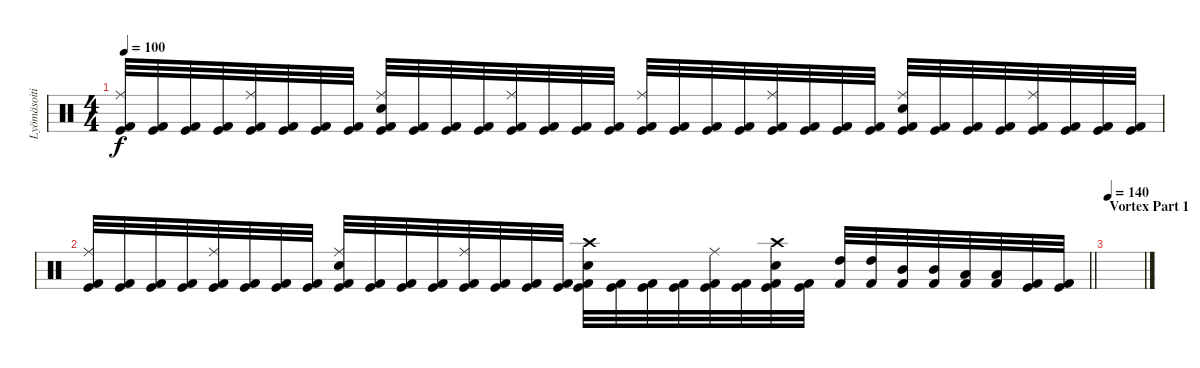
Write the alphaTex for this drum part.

\track ("Lyömäsoitin" "Lyömäsoiti") {instrument percussion}
\staff {score}
\articulation defaults
\ts (4 4)
\tempo 100
\clef neutral
\ks c
("Kick (hit) 2" "Ride (middle)" "Kick (hit)").32{dy f} ("Kick (hit) 2" "Kick (hit)").32 ("Kick (hit) 2" "Kick (hit)").32 ("Kick (hit) 2" "Kick (hit)").32 ("Kick (hit) 2" "Ride (middle)" "Kick (hit)").32 ("Kick (hit) 2" "Kick (hit)").32 ("Kick (hit) 2" "Kick (hit)").32 ("Kick (hit) 2" "Kick (hit)").32 ("Kick (hit) 2" "Ride (middle)" "Electric Snare (hit)" "Kick (hit)").32 ("Kick (hit) 2" "Kick (hit)").32 ("Kick (hit) 2" "Kick (hit)").32 ("Kick (hit) 2" "Kick (hit)").32 ("Kick (hit) 2" "Ride (middle)" "Kick (hit)").32 ("Kick (hit) 2" "Kick (hit)").32 ("Kick (hit) 2" "Kick (hit)").32 ("Kick (hit) 2" "Kick (hit)").32 ("Kick (hit) 2" "Ride (middle)" "Kick (hit)").32 ("Kick (hit) 2" "Kick (hit)").32 ("Kick (hit) 2" "Kick (hit)").32 ("Kick (hit) 2" "Kick (hit)").32 ("Kick (hit) 2" "Ride (middle)" "Kick (hit)").32 ("Kick (hit) 2" "Kick (hit)").32 ("Kick (hit) 2" "Kick (hit)").32 ("Kick (hit) 2" "Kick (hit)").32 ("Kick (hit) 2" "Ride (middle)" "Electric Snare (hit)" "Kick (hit)").32 ("Kick (hit) 2" "Kick (hit)").32 ("Kick (hit) 2" "Kick (hit)").32 ("Kick (hit) 2" "Kick (hit)").32 ("Kick (hit) 2" "Ride (middle)" "Kick (hit)").32 ("Kick (hit) 2" "Kick (hit)").32 ("Kick (hit) 2" "Kick (hit)").32 ("Kick (hit) 2" "Kick (hit)").32 |
\barLineRight lightlight
("Kick (hit) 2" "Ride (middle)" "Kick (hit)").32 ("Kick (hit) 2" "Kick (hit)").32 ("Kick (hit) 2" "Kick (hit)").32 ("Kick (hit) 2" "Kick (hit)").32 ("Kick (hit) 2" "Ride (middle)" "Kick (hit)").32 ("Kick (hit) 2" "Kick (hit)").32 ("Kick (hit) 2" "Kick (hit)").32 ("Kick (hit) 2" "Kick (hit)").32 ("Kick (hit) 2" "Ride (middle)" "Electric Snare (hit)" "Kick (hit)").32 ("Kick (hit) 2" "Kick (hit)").32 ("Kick (hit) 2" "Kick (hit)").32 ("Kick (hit) 2" "Kick (hit)").32 ("Kick (hit) 2" "Ride (middle)" "Kick (hit)").32 ("Kick (hit) 2" "Kick (hit)").32 ("Kick (hit) 2" "Kick (hit)").32 ("Kick (hit) 2" "Kick (hit)").32 ("Kick (hit) 2" "Crash high (hit)" "Electric Snare (hit)" "Kick (hit)").32 ("Kick (hit) 2" "Kick (hit)").32 ("Kick (hit) 2" "Kick (hit)").32 ("Kick (hit) 2" "Kick (hit)").32 ("Kick (hit) 2" "Ride (middle)" "Kick (hit)").32 ("Kick (hit) 2" "Kick (hit)").32 ("Kick (hit) 2" "Crash high (hit)" "Electric Snare (hit)" "Kick (hit)").32 ("Kick (hit) 2" "Kick (hit)").32 ("Kick (hit) 2" "High Tom (hit)").32 ("Kick (hit) 2" "High Tom (hit)").32 ("Kick (hit) 2" "Mid Tom (hit)").32 ("Kick (hit) 2" "Mid Tom (hit)").32 ("Kick (hit) 2" "Low Tom (hit)").32 ("Kick (hit) 2" "Low Tom (hit)").32 ("Kick (hit) 2" "Kick (hit)").32 ("Kick (hit) 2" "Kick (hit)").32 |
\section ("" "Vortex Part 1")
\tempo 140
